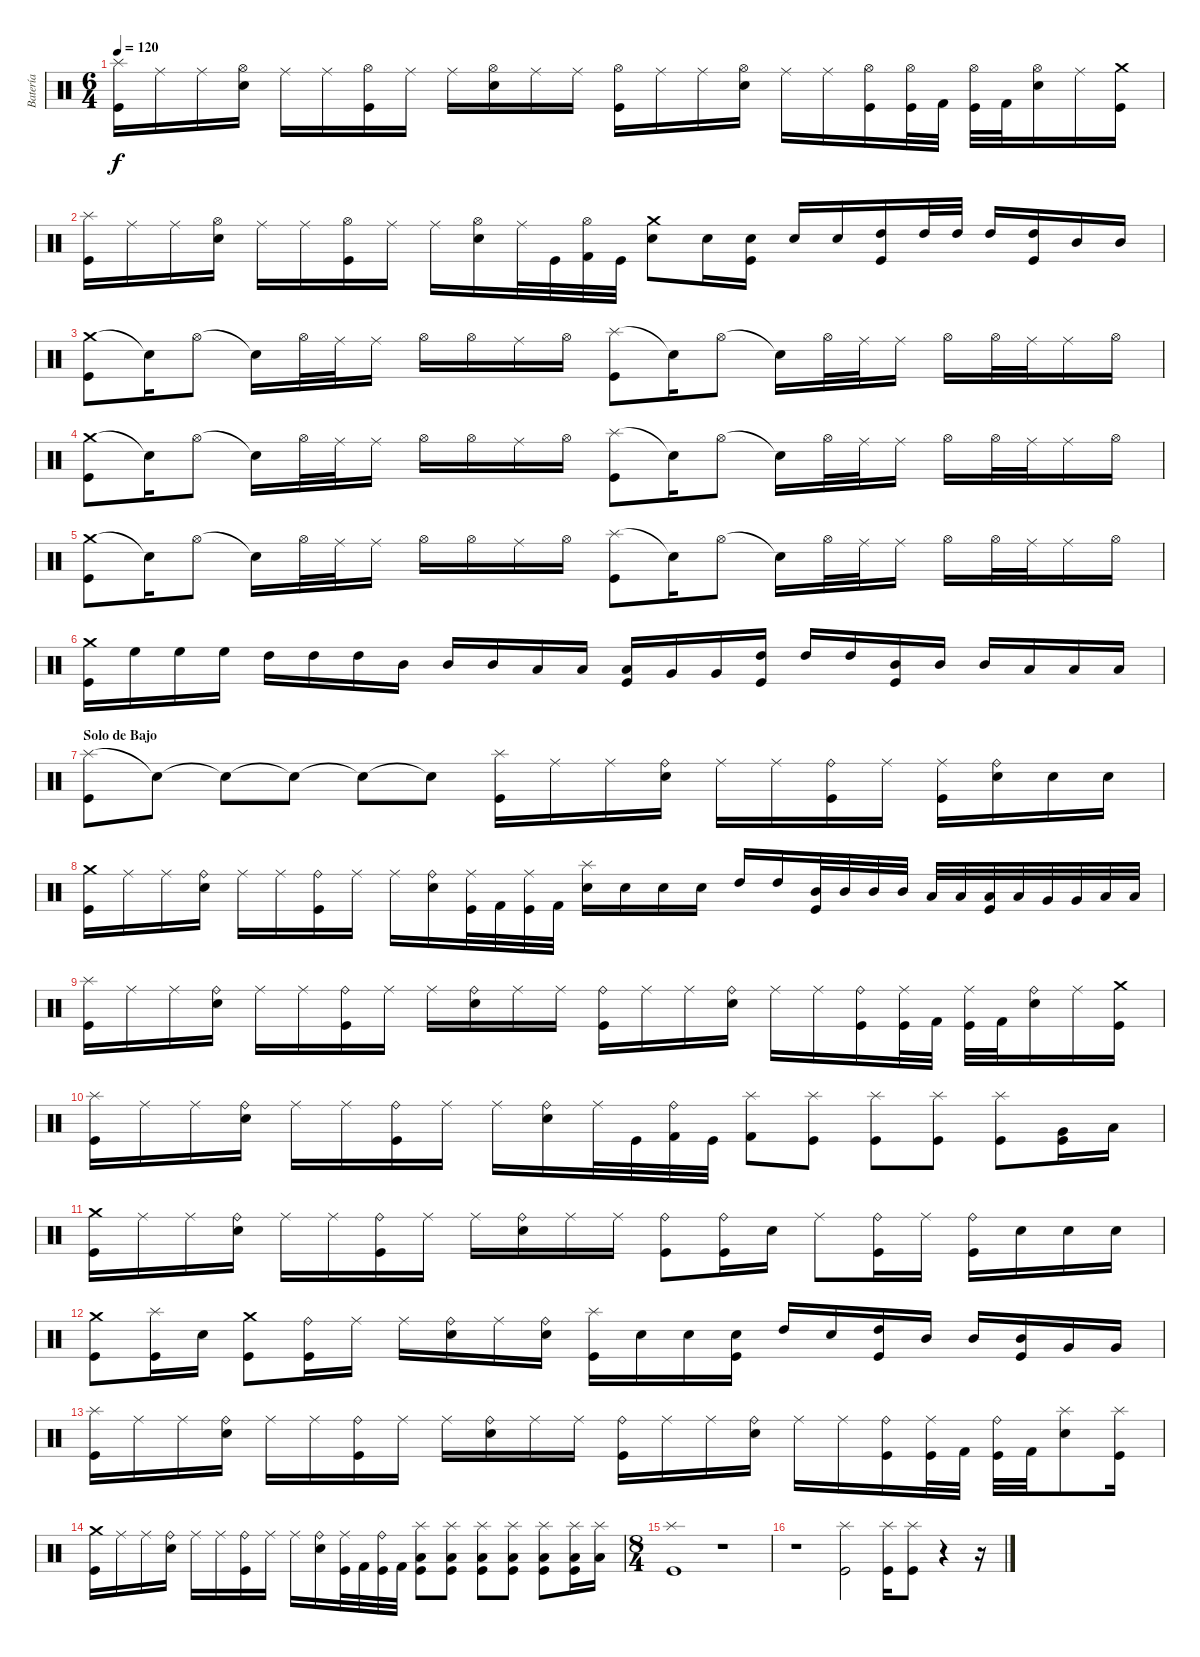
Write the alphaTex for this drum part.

\track ("Batería" "Batería") {instrument percussion}
\staff {score}
\articulation defaults
\ts (6 4)
\tempo 120
\clef neutral
\ks c
("Splash (hit)" "Kick (hit)").16{dy f} "Ride (middle)".16 "Ride (middle)".16 ("Hi-Hat (open)" "Electric Snare (hit)").16 "Ride (middle)".16 "Ride (middle)".16 ("Hi-Hat (open)" "Kick (hit)").16 "Ride (middle)".16 "Ride (middle)".16 ("Hi-Hat (open)" "Electric Snare (hit)").16 "Ride (middle)".16 "Ride (middle)".16 ("Hi-Hat (open)" "Kick (hit)").16 "Ride (middle)".16 "Ride (middle)".16 ("Hi-Hat (open)" "Electric Snare (hit)").16 "Ride (middle)".16 "Ride (middle)".16 ("Hi-Hat (open)" "Kick (hit)").16 ("Hi-Hat (open)" "Kick (hit)").32 "Kick (hit) 2".32 ("Hi-Hat (open)" "Kick (hit)").32 "Kick (hit) 2".32 ("Hi-Hat (open)" "Electric Snare (hit)").16 "Ride (middle)".16 ("Crash medium (hit)" "Kick (hit)").16 |
("Splash (hit)" "Kick (hit)").16 "Ride (middle)".16 "Ride (middle)".16 ("Hi-Hat (open)" "Electric Snare (hit)").16 "Ride (middle)".16 "Ride (middle)".16 ("Hi-Hat (open)" "Kick (hit)").16 "Ride (middle)".16 "Ride (middle)".16 ("Hi-Hat (open)" "Electric Snare (hit)").16 "Ride (middle)".32 "Kick (hit)".32 ("Hi-Hat (open)" "Kick (hit) 2").32 "Kick (hit)".32 ("Crash medium (hit)" "Electric Snare (hit)").8 "Electric Snare (hit)".16 ("Electric Snare (hit)" "Kick (hit)").16 "Electric Snare (hit)".16 "Electric Snare (hit)".16 ("High Tom (hit)" "Kick (hit)").16 "High Tom (hit)".32 "High Tom (hit)".32 "High Tom (hit)".16 ("High Tom (hit)" "Kick (hit)").16 "Mid Tom (hit)".16 "Mid Tom (hit)".16 |
("Crash medium (hit)" "Kick (hit)").8 "Snare (hit)"{t}.16 "Hi-Hat (open)".8 "Snare (hit)"{t}.16 "Hi-Hat (open)".32 "Ride (middle)".32 "Ride (middle)".16 "Hi-Hat (open)".16 "Hi-Hat (open)".16 "Ride (middle)".16 "Hi-Hat (open)".16 ("Splash (hit)" "Kick (hit)").8 "Snare (hit)"{t}.16 "Hi-Hat (open)".8 "Snare (hit)"{t}.16 "Hi-Hat (open)".32 "Ride (middle)".32 "Ride (middle)".16 "Hi-Hat (open)".16 "Hi-Hat (open)".32 "Ride (middle)".32 "Ride (middle)".16 "Hi-Hat (open)".16 |
("Crash medium (hit)" "Kick (hit)").8 "Snare (hit)"{t}.16 "Hi-Hat (open)".8 "Snare (hit)"{t}.16 "Hi-Hat (open)".32 "Ride (middle)".32 "Ride (middle)".16 "Hi-Hat (open)".16 "Hi-Hat (open)".16 "Ride (middle)".16 "Hi-Hat (open)".16 ("Splash (hit)" "Kick (hit)").8 "Snare (hit)"{t}.16 "Hi-Hat (open)".8 "Snare (hit)"{t}.16 "Hi-Hat (open)".32 "Ride (middle)".32 "Ride (middle)".16 "Hi-Hat (open)".16 "Hi-Hat (open)".32 "Ride (middle)".32 "Ride (middle)".16 "Hi-Hat (open)".16 |
("Crash medium (hit)" "Kick (hit)").8 "Snare (hit)"{t}.16 "Hi-Hat (open)".8 "Snare (hit)"{t}.16 "Hi-Hat (open)".32 "Ride (middle)".32 "Ride (middle)".16 "Hi-Hat (open)".16 "Hi-Hat (open)".16 "Ride (middle)".16 "Hi-Hat (open)".16 ("Splash (hit)" "Kick (hit)").8 "Snare (hit)"{t}.16 "Hi-Hat (open)".8 "Snare (hit)"{t}.16 "Hi-Hat (open)".32 "Ride (middle)".32 "Ride (middle)".16 "Hi-Hat (open)".16 "Hi-Hat (open)".32 "Ride (middle)".32 "Ride (middle)".16 "Hi-Hat (open)".16 |
("Crash medium (hit)" "Kick (hit)").16 "High Floor Tom (hit)".16 "High Floor Tom (hit)".16 "High Floor Tom (hit)".16 "High Tom (hit)".16 "High Tom (hit)".16 "High Tom (hit)".16 "Mid Tom (hit)".16 "Mid Tom (hit)".16 "Mid Tom (hit)".16 "Low Tom (hit)".16 "Low Tom (hit)".16 ("Low Tom (hit)" "Kick (hit)").16 "Very Low Tom (hit)".16 "Very Low Tom (hit)".16 ("High Tom (hit)" "Kick (hit)").16 "High Tom (hit)".16 "High Tom (hit)".16 ("Mid Tom (hit)" "Kick (hit)").16 "Mid Tom (hit)".16 "Mid Tom (hit)".16 "Low Tom (hit)".16 "Low Tom (hit)".16 "Low Tom (hit)".16 |
\section ("" "Solo de Bajo")
("Splash (hit)" "Kick (hit)").8 "Snare (hit)"{t}.8 "Snare (hit)"{t}.8 "Snare (hit)"{t}.8 "Snare (hit)"{t}.8 "Snare (hit)"{t}.8 ("Splash (hit)" "Kick (hit)").16 "Ride (middle)".16 "Ride (middle)".16 ("Ride (bell)" "Electric Snare (hit)").16 "Ride (middle)".16 "Ride (middle)".16 ("Ride (bell)" "Kick (hit)").16 "Ride (middle)".16 ("Ride (middle)" "Kick (hit)").16 ("Ride (bell)" "Electric Snare (hit)").16 "Electric Snare (hit)".16 "Electric Snare (hit)".16 |
("Crash medium (hit)" "Kick (hit)").16 "Ride (middle)".16 "Ride (middle)".16 ("Ride (bell)" "Electric Snare (hit)").16 "Ride (middle)".16 "Ride (middle)".16 ("Ride (bell)" "Kick (hit)").16 "Ride (middle)".16 "Ride (middle)".16 ("Ride (bell)" "Electric Snare (hit)").16 ("Ride (middle)" "Kick (hit)").32 "Kick (hit) 2".32 ("Ride (middle)" "Kick (hit)").32 "Kick (hit) 2".32 ("Splash (hit)" "Electric Snare (hit)").16 "Electric Snare (hit)".16 "Electric Snare (hit)".16 "Electric Snare (hit)".16 "High Tom (hit)".16 "High Tom (hit)".16 ("Mid Tom (hit)" "Kick (hit)").32 "Mid Tom (hit)".32 "Mid Tom (hit)".32 "Mid Tom (hit)".32 "Low Tom (hit)".32 "Low Tom (hit)".32 ("Low Tom (hit)" "Kick (hit)").32 "Low Tom (hit)".32 "Very Low Tom (hit)".32 "Very Low Tom (hit)".32 "Low Floor Tom (hit)".32 "Low Floor Tom (hit)".32 |
("Splash (hit)" "Kick (hit)").16 "Ride (middle)".16 "Ride (middle)".16 ("Ride (bell)" "Electric Snare (hit)").16 "Ride (middle)".16 "Ride (middle)".16 ("Ride (bell)" "Kick (hit)").16 "Ride (middle)".16 "Ride (middle)".16 ("Ride (bell)" "Electric Snare (hit)").16 "Ride (middle)".16 "Ride (middle)".16 ("Ride (bell)" "Kick (hit)").16 "Ride (middle)".16 "Ride (middle)".16 ("Ride (bell)" "Electric Snare (hit)").16 "Ride (middle)".16 "Ride (middle)".16 ("Ride (bell)" "Kick (hit)").16 ("Ride (middle)" "Kick (hit)").32 "Kick (hit) 2".32 ("Ride (middle)" "Kick (hit)").32 "Kick (hit) 2".32 ("Ride (bell)" "Electric Snare (hit)").16 "Ride (middle)".16 ("Crash medium (hit)" "Kick (hit)").16 |
("Splash (hit)" "Kick (hit)").16 "Ride (middle)".16 "Ride (middle)".16 ("Ride (bell)" "Electric Snare (hit)").16 "Ride (middle)".16 "Ride (middle)".16 ("Ride (bell)" "Kick (hit)").16 "Ride (middle)".16 "Ride (middle)".16 ("Ride (bell)" "Electric Snare (hit)").16 "Ride (middle)".32 "Kick (hit)".32 ("Ride (bell)" "Kick (hit) 2").32 "Kick (hit)".32 ("Splash (hit)" "Kick (hit) 2").8 ("Splash (hit)" "Kick (hit)").8 ("Splash (hit)" "Kick (hit)").8 ("Splash (hit)" "Kick (hit)").8 ("Splash (hit)" "Kick (hit)").8 ("Very Low Tom (hit)" "Kick (hit)").16 "Low Floor Tom (hit)".16 |
("Crash medium (hit)" "Kick (hit)").16 "Ride (middle)".16 "Ride (middle)".16 ("Ride (bell)" "Electric Snare (hit)").16 "Ride (middle)".16 "Ride (middle)".16 ("Ride (bell)" "Kick (hit)").16 "Ride (middle)".16 "Ride (middle)".16 ("Ride (bell)" "Electric Snare (hit)").16 "Ride (middle)".16 "Ride (middle)".16 ("Ride (bell)" "Kick (hit)").8 ("Ride (bell)" "Kick (hit)").16 "Electric Snare (hit)".16 "Ride (middle)".8 ("Ride (bell)" "Kick (hit)").16 "Ride (middle)".16 ("Ride (bell)" "Kick (hit)").16 "Electric Snare (hit)".16 "Electric Snare (hit)".16 "Electric Snare (hit)".16 |
("Crash medium (hit)" "Kick (hit)").8 ("Splash (hit)" "Kick (hit)").16 "Electric Snare (hit)".16 ("Crash medium (hit)" "Kick (hit)").8 ("Ride (bell)" "Kick (hit)").16 "Ride (middle)".16 "Ride (middle)".16 ("Ride (bell)" "Electric Snare (hit)").16 "Ride (middle)".16 ("Ride (bell)" "Electric Snare (hit)").16 ("Splash (hit)" "Kick (hit)").16 "Electric Snare (hit)".16 "Electric Snare (hit)".16 ("Electric Snare (hit)" "Kick (hit)").16 "High Tom (hit)".16 "Electric Snare (hit)".16 ("High Tom (hit)" "Kick (hit)").16 "Mid Tom (hit)".16 "Mid Tom (hit)".16 ("Mid Tom (hit)" "Kick (hit)").16 "Very Low Tom (hit)".16 "Very Low Tom (hit)".16 |
("Splash (hit)" "Kick (hit)").16 "Ride (middle)".16 "Ride (middle)".16 ("Ride (bell)" "Electric Snare (hit)").16 "Ride (middle)".16 "Ride (middle)".16 ("Ride (bell)" "Kick (hit)").16 "Ride (middle)".16 "Ride (middle)".16 ("Ride (bell)" "Electric Snare (hit)").16 "Ride (middle)".16 "Ride (middle)".16 ("Ride (bell)" "Kick (hit)").16 "Ride (middle)".16 "Ride (middle)".16 ("Ride (bell)" "Electric Snare (hit)").16 "Ride (middle)".16 "Ride (middle)".16 ("Ride (bell)" "Kick (hit)").16 ("Ride (middle)" "Kick (hit)").32 "Kick (hit) 2".32 ("Ride (bell)" "Kick (hit)").32 "Kick (hit) 2".32 ("Splash (hit)" "Electric Snare (hit)").8 ("Splash (hit)" "Kick (hit)").16 |
("Crash medium (hit)" "Kick (hit)").16 "Ride (middle)".16 "Ride (middle)".16 ("Ride (bell)" "Electric Snare (hit)").16 "Ride (middle)".16 "Ride (middle)".16 ("Ride (bell)" "Kick (hit)").16 "Ride (middle)".16 "Ride (middle)".16 ("Ride (bell)" "Electric Snare (hit)").16 ("Ride (middle)" "Kick (hit)").32 "Kick (hit) 2".32 ("Ride (bell)" "Kick (hit)").32 "Kick (hit) 2".32 ("Splash (hit)" "Low Floor Tom (hit)" "Kick (hit)").8 ("Splash (hit)" "Low Floor Tom (hit)" "Kick (hit)").8 ("Splash (hit)" "Low Floor Tom (hit)" "Kick (hit)").8 ("Splash (hit)" "Low Floor Tom (hit)" "Kick (hit)").8 ("Splash (hit)" "Low Floor Tom (hit)" "Kick (hit)").8 ("Splash (hit)" "Low Floor Tom (hit)" "Kick (hit)").16 ("Splash (hit)" "Low Floor Tom (hit)").16 |
\ts (8 4)
("Splash (hit)" "Kick (hit)").1 r.1 |
r.1 ("Splash (hit)" "Kick (hit)").2 ("Splash (hit)" "Kick (hit)").16 ("Splash (hit)" "Kick (hit)").8 r.4 r.16
